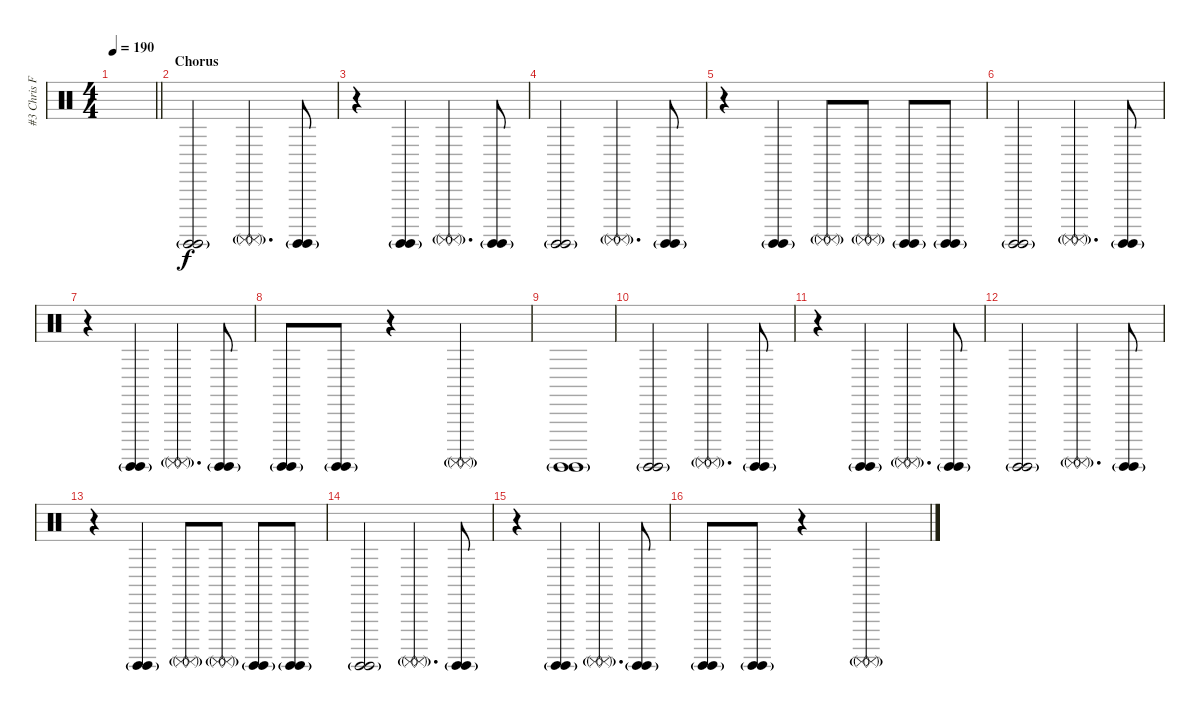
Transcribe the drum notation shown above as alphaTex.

\track ("#3 Chris Fehn" "#3 Chris F") {instrument percussion}
\staff {score}
\articulation defaults
\ts (4 4)
\tempo 190
\clef neutral
\barLineRight lightlight
\ks c
|
\section ("" "Chorus")
("Surdo (hit)"{g} "Surdo (hit)"{g}).2 ("Surdo (mute)"{g} "Surdo (mute)"{g}).4{d} ("Surdo (hit)"{g} "Surdo (hit)"{g}).8 |
r.4 ("Surdo (hit)"{g} "Surdo (hit)"{g}).4 ("Surdo (mute)"{g} "Surdo (mute)"{g}).4{d} ("Surdo (hit)"{g} "Surdo (hit)"{g}).8 |
("Surdo (hit)"{g} "Surdo (hit)"{g}).2 ("Surdo (mute)"{g} "Surdo (mute)"{g}).4{d} ("Surdo (hit)"{g} "Surdo (hit)"{g}).8 |
r.4 ("Surdo (hit)"{g} "Surdo (hit)"{g}).4 ("Surdo (mute)"{g} "Surdo (mute)"{g}).8 ("Surdo (mute)"{g} "Surdo (mute)"{g}).8 ("Surdo (hit)"{g} "Surdo (hit)"{g}).8 ("Surdo (hit)"{g} "Surdo (hit)"{g}).8 |
("Surdo (hit)"{g} "Surdo (hit)"{g}).2 ("Surdo (mute)"{g} "Surdo (mute)"{g}).4{d} ("Surdo (hit)"{g} "Surdo (hit)"{g}).8 |
r.4 ("Surdo (hit)"{g} "Surdo (hit)"{g}).4 ("Surdo (mute)"{g} "Surdo (mute)"{g}).4{d} ("Surdo (hit)"{g} "Surdo (hit)"{g}).8 |
("Surdo (hit)"{g} "Surdo (hit)"{g}).8 ("Surdo (hit)"{g} "Surdo (hit)"{g}).8 r.4 ("Surdo (mute)"{g} "Surdo (mute)"{g}).2 |
("Surdo (hit)"{g} "Surdo (hit)"{g}).1 |
("Surdo (hit)"{g} "Surdo (hit)"{g}).2 ("Surdo (mute)"{g} "Surdo (mute)"{g}).4{d} ("Surdo (hit)"{g} "Surdo (hit)"{g}).8 |
r.4 ("Surdo (hit)"{g} "Surdo (hit)"{g}).4 ("Surdo (mute)"{g} "Surdo (mute)"{g}).4{d} ("Surdo (hit)"{g} "Surdo (hit)"{g}).8 |
("Surdo (hit)"{g} "Surdo (hit)"{g}).2 ("Surdo (mute)"{g} "Surdo (mute)"{g}).4{d} ("Surdo (hit)"{g} "Surdo (hit)"{g}).8 |
r.4 ("Surdo (hit)"{g} "Surdo (hit)"{g}).4 ("Surdo (mute)"{g} "Surdo (mute)"{g}).8 ("Surdo (mute)"{g} "Surdo (mute)"{g}).8 ("Surdo (hit)"{g} "Surdo (hit)"{g}).8 ("Surdo (hit)"{g} "Surdo (hit)"{g}).8 |
("Surdo (hit)"{g} "Surdo (hit)"{g}).2 ("Surdo (mute)"{g} "Surdo (mute)"{g}).4{d} ("Surdo (hit)"{g} "Surdo (hit)"{g}).8 |
r.4 ("Surdo (hit)"{g} "Surdo (hit)"{g}).4 ("Surdo (mute)"{g} "Surdo (mute)"{g}).4{d} ("Surdo (hit)"{g} "Surdo (hit)"{g}).8 |
("Surdo (hit)"{g} "Surdo (hit)"{g}).8 ("Surdo (hit)"{g} "Surdo (hit)"{g}).8 r.4 ("Surdo (mute)"{g} "Surdo (mute)"{g}).2
